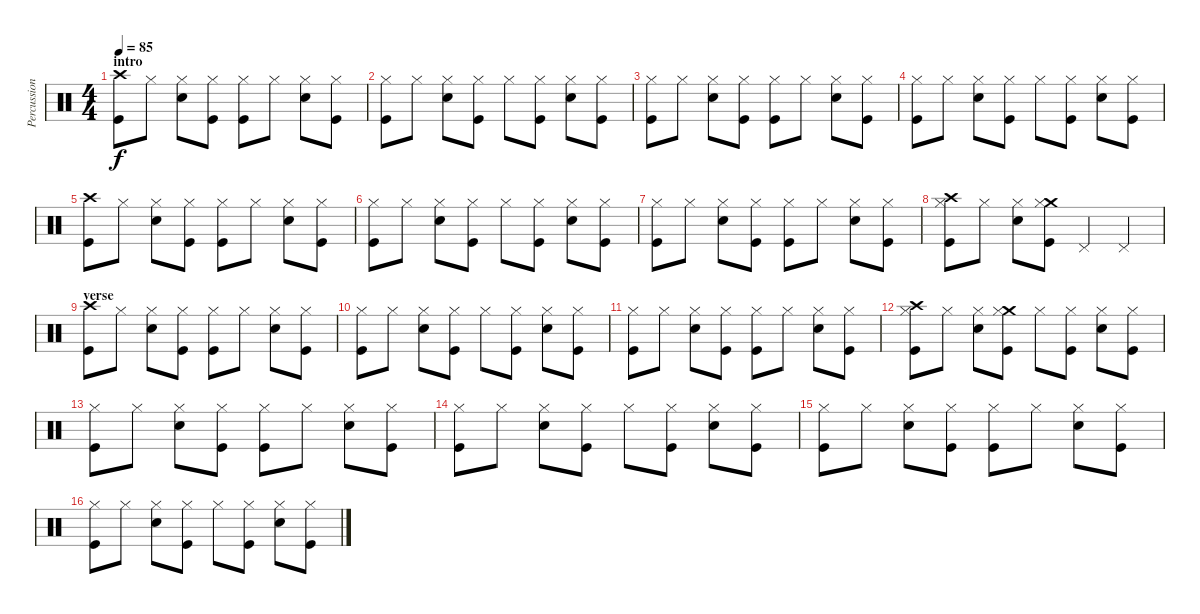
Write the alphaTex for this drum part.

\track ("Percussion" "Percussion") {instrument percussion}
\staff {score}
\articulation defaults
\ts (4 4)
\section ("" "intro")
\tempo 85
\clef neutral
\ks c
("Crash high (hit)" "Kick (hit)").8{dy f} "Hi-Hat (closed)".8 ("Hi-Hat (closed)" "Snare (hit) 2").8 ("Hi-Hat (closed)" "Kick (hit)").8 ("Hi-Hat (closed)" "Kick (hit)").8 "Hi-Hat (closed)".8 ("Hi-Hat (closed)" "Snare (hit) 2").8 ("Hi-Hat (closed)" "Kick (hit)").8 |
("Hi-Hat (closed)" "Kick (hit)").8 "Hi-Hat (closed)".8 ("Hi-Hat (closed)" "Snare (hit) 2").8 ("Hi-Hat (closed)" "Kick (hit)").8 "Hi-Hat (closed)".8 ("Hi-Hat (closed)" "Kick (hit)").8 ("Hi-Hat (closed)" "Snare (hit) 2").8 ("Hi-Hat (closed)" "Kick (hit)").8 |
("Hi-Hat (closed)" "Kick (hit)").8 "Hi-Hat (closed)".8 ("Hi-Hat (closed)" "Snare (hit) 2").8 ("Hi-Hat (closed)" "Kick (hit)").8 ("Hi-Hat (closed)" "Kick (hit)").8 "Hi-Hat (closed)".8 ("Hi-Hat (closed)" "Snare (hit) 2").8 ("Hi-Hat (closed)" "Kick (hit)").8 |
("Hi-Hat (closed)" "Kick (hit)").8 "Hi-Hat (closed)".8 ("Hi-Hat (closed)" "Snare (hit) 2").8 ("Hi-Hat (closed)" "Kick (hit)").8 "Hi-Hat (closed)".8 ("Hi-Hat (closed)" "Kick (hit)").8 ("Hi-Hat (closed)" "Snare (hit) 2").8 ("Hi-Hat (closed)" "Kick (hit)").8 |
("Crash high (hit)" "Kick (hit)").8 "Hi-Hat (closed)".8 ("Hi-Hat (closed)" "Snare (hit) 2").8 ("Hi-Hat (closed)" "Kick (hit)").8 ("Hi-Hat (closed)" "Kick (hit)").8 "Hi-Hat (closed)".8 ("Hi-Hat (closed)" "Snare (hit) 2").8 ("Hi-Hat (closed)" "Kick (hit)").8 |
("Hi-Hat (closed)" "Kick (hit)").8 "Hi-Hat (closed)".8 ("Hi-Hat (closed)" "Snare (hit) 2").8 ("Hi-Hat (closed)" "Kick (hit)").8 "Hi-Hat (closed)".8 ("Hi-Hat (closed)" "Kick (hit)").8 ("Hi-Hat (closed)" "Snare (hit) 2").8 ("Hi-Hat (closed)" "Kick (hit)").8 |
("Hi-Hat (closed)" "Kick (hit)").8 "Hi-Hat (closed)".8 ("Hi-Hat (closed)" "Snare (hit) 2").8 ("Hi-Hat (closed)" "Kick (hit)").8 ("Hi-Hat (closed)" "Kick (hit)").8 "Hi-Hat (closed)".8 ("Hi-Hat (closed)" "Snare (hit) 2").8 ("Hi-Hat (closed)" "Kick (hit)").8 |
("Crash high (hit)" "Hi-Hat (closed)" "Kick (hit)").8 "Hi-Hat (closed)".8 ("Hi-Hat (closed)" "Snare (hit) 2").8 ("Crash medium (hit)" "Hi-Hat (closed)" "Kick (hit)").8 "Pedal Hi-Hat (hit)".4{volume 12} "Pedal Hi-Hat (hit)".4 |
\section ("" "verse")
("Crash high (hit)" "Kick (hit)").8{volume 16} "Hi-Hat (closed)".8 ("Hi-Hat (closed)" "Snare (hit) 2").8 ("Hi-Hat (closed)" "Kick (hit)").8 ("Hi-Hat (closed)" "Kick (hit)").8 "Hi-Hat (closed)".8 ("Hi-Hat (closed)" "Snare (hit) 2").8 ("Hi-Hat (closed)" "Kick (hit)").8 |
("Hi-Hat (closed)" "Kick (hit)").8 "Hi-Hat (closed)".8 ("Hi-Hat (closed)" "Snare (hit) 2").8 ("Hi-Hat (closed)" "Kick (hit)").8 "Hi-Hat (closed)".8 ("Hi-Hat (closed)" "Kick (hit)").8 ("Hi-Hat (closed)" "Snare (hit) 2").8 ("Hi-Hat (closed)" "Kick (hit)").8 |
("Hi-Hat (closed)" "Kick (hit)").8 "Hi-Hat (closed)".8 ("Hi-Hat (closed)" "Snare (hit) 2").8 ("Hi-Hat (closed)" "Kick (hit)").8 ("Hi-Hat (closed)" "Kick (hit)").8 "Hi-Hat (closed)".8 ("Hi-Hat (closed)" "Snare (hit) 2").8 ("Hi-Hat (closed)" "Kick (hit)").8 |
("Crash high (hit)" "Hi-Hat (closed)" "Kick (hit)").8 "Hi-Hat (closed)".8 ("Hi-Hat (closed)" "Snare (hit) 2").8 ("Crash medium (hit)" "Hi-Hat (closed)" "Kick (hit)").8 "Hi-Hat (closed)".8 ("Hi-Hat (closed)" "Kick (hit)").8 ("Hi-Hat (closed)" "Snare (hit) 2").8 ("Hi-Hat (closed)" "Kick (hit)").8 |
("Hi-Hat (closed)" "Kick (hit)").8 "Hi-Hat (closed)".8 ("Hi-Hat (closed)" "Snare (hit) 2").8 ("Hi-Hat (closed)" "Kick (hit)").8 ("Hi-Hat (closed)" "Kick (hit)").8 "Hi-Hat (closed)".8 ("Hi-Hat (closed)" "Snare (hit) 2").8 ("Hi-Hat (closed)" "Kick (hit)").8 |
("Hi-Hat (closed)" "Kick (hit)").8 "Hi-Hat (closed)".8 ("Hi-Hat (closed)" "Snare (hit) 2").8 ("Hi-Hat (closed)" "Kick (hit)").8 "Hi-Hat (closed)".8 ("Hi-Hat (closed)" "Kick (hit)").8 ("Hi-Hat (closed)" "Snare (hit) 2").8 ("Hi-Hat (closed)" "Kick (hit)").8 |
("Hi-Hat (closed)" "Kick (hit)").8 "Hi-Hat (closed)".8 ("Hi-Hat (closed)" "Snare (hit) 2").8 ("Hi-Hat (closed)" "Kick (hit)").8 ("Hi-Hat (closed)" "Kick (hit)").8 "Hi-Hat (closed)".8 ("Hi-Hat (closed)" "Snare (hit) 2").8 ("Hi-Hat (closed)" "Kick (hit)").8 |
("Hi-Hat (closed)" "Kick (hit)").8 "Hi-Hat (closed)".8 ("Hi-Hat (closed)" "Snare (hit) 2").8 ("Hi-Hat (closed)" "Kick (hit)").8 "Hi-Hat (closed)".8 ("Hi-Hat (closed)" "Kick (hit)").8 ("Hi-Hat (closed)" "Snare (hit) 2").8 ("Hi-Hat (closed)" "Kick (hit)").8
